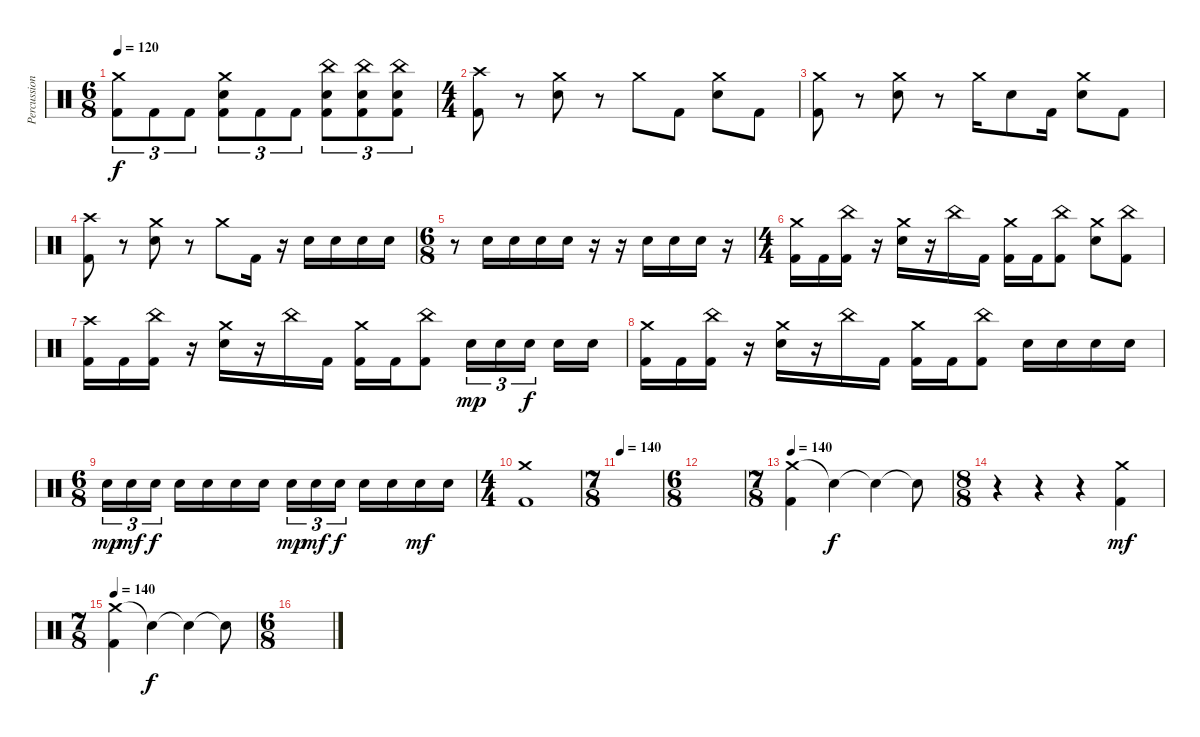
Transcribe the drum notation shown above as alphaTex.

\track ("Percussion" "Percussion") {instrument percussion}
\staff {score}
\articulation defaults
\ts (6 8)
\tempo 120
\clef neutral
\ks c
("Crash medium (hit)" "Kick (hit) 2").8{tu (3 2) dy f} "Kick (hit) 2".8{tu (3 2)} "Kick (hit) 2".8{tu (3 2)} ("Crash medium (hit)" "Snare (hit) 2" "Kick (hit) 2").8{tu (3 2)} "Kick (hit) 2".8{tu (3 2)} "Kick (hit) 2".8{tu (3 2)} ("China (hit)" "Snare (hit) 2" "Kick (hit) 2").8{tu (3 2)} ("China (hit)" "Snare (hit) 2" "Kick (hit) 2").8{tu (3 2)} ("China (hit)" "Snare (hit) 2" "Kick (hit) 2").8{tu (3 2)} |
\ts (4 4)
("Crash high (hit)" "Kick (hit) 2").8 r.8 ("Crash medium (hit)" "Snare (hit) 2").8 r.8 "Crash medium (hit)".8 "Kick (hit) 2".8 ("Crash medium (hit)" "Snare (hit) 2").8 "Kick (hit) 2".8 |
("Crash medium (hit)" "Kick (hit) 2").8 r.8 ("Crash medium (hit)" "Snare (hit) 2").8 r.8 "Crash medium (hit)".16 "Snare (hit) 2".8 "Kick (hit) 2".16 ("Crash medium (hit)" "Snare (hit) 2").8 "Kick (hit) 2".8 |
("Crash high (hit)" "Kick (hit) 2").8 r.8 ("Crash medium (hit)" "Snare (hit) 2").8 r.8 "Crash medium (hit)".8 "Kick (hit) 2".16 r.16 "Snare (hit) 2".16 "Snare (hit) 2".16 "Snare (hit) 2".16 "Snare (hit) 2".16 |
\ts (6 8)
r.8 "Snare (hit) 2".16 "Snare (hit) 2".16 "Snare (hit) 2".16 "Snare (hit) 2".16 r.16 r.16 "Snare (hit) 2".16 "Snare (hit) 2".16 "Snare (hit) 2".16 r.16 |
\ts (4 4)
("Crash medium (hit)" "Kick (hit) 2").16 "Kick (hit) 2".16 ("China (hit)" "Kick (hit) 2").16 r.16 ("Crash medium (hit)" "Snare (hit) 2").16 r.16 "China (hit)".16 "Kick (hit) 2".16 ("Crash medium (hit)" "Kick (hit) 2").16 "Kick (hit) 2".16 ("China (hit)" "Kick (hit) 2").8 ("Crash medium (hit)" "Snare (hit) 2").8 ("China (hit)" "Kick (hit) 2").8 |
("Crash high (hit)" "Kick (hit) 2").16 "Kick (hit) 2".16 ("China (hit)" "Kick (hit) 2").16 r.16 ("Crash medium (hit)" "Snare (hit) 2").16 r.16 "China (hit)".16 "Kick (hit) 2".16 ("Crash medium (hit)" "Kick (hit) 2").16 "Kick (hit) 2".16 ("China (hit)" "Kick (hit) 2").8 "Snare (hit) 2".16{tu (3 2) dy mp} "Snare (hit) 2".16{tu (3 2)} "Snare (hit) 2".16{tu (3 2) dy f beam splitsecondary} "Snare (hit) 2".16 "Snare (hit) 2".16 |
("Crash medium (hit)" "Kick (hit) 2").16 "Kick (hit) 2".16 ("China (hit)" "Kick (hit) 2").16 r.16 ("Crash medium (hit)" "Snare (hit) 2").16 r.16 "China (hit)".16 "Kick (hit) 2".16 ("Crash medium (hit)" "Kick (hit) 2").16 "Kick (hit) 2".16 ("China (hit)" "Kick (hit) 2").8 "Snare (hit) 2".16 "Snare (hit) 2".16 "Snare (hit) 2".16 "Snare (hit) 2".16 |
\ts (6 8)
"Snare (hit) 2".16{tu (3 2) dy mp} "Snare (hit) 2".16{tu (3 2) dy mf} "Snare (hit) 2".16{tu (3 2) dy f beam splitsecondary} "Snare (hit) 2".16 "Snare (hit) 2".16 "Snare (hit) 2".16 "Snare (hit) 2".16 "Snare (hit) 2".16{tu (3 2) dy mp} "Snare (hit) 2".16{tu (3 2) dy mf} "Snare (hit) 2".16{tu (3 2) dy f beam splitsecondary} "Snare (hit) 2".16 "Snare (hit) 2".16 "Snare (hit) 2".16{dy mf} "Snare (hit) 2".16 |
\ts (4 4)
("Crash medium (hit)" "Kick (hit) 2").1 |
\ts (7 8)
\tempo 140
|
\ts (6 8)
|
\ts (7 8)
\tempo 140
("Crash medium (hit)" "Kick (hit) 2").4 "Snare (hit)"{t}.4{dy f} "Snare (hit)"{t}.4 "Snare (hit)"{t}.8 |
\ts (8 8)
r.4 r.4 r.4 ("Crash medium (hit)" "Kick (hit) 2").4{dy mf} |
\ts (7 8)
\tempo 140
("Crash medium (hit)" "Kick (hit) 2").4 "Snare (hit)"{t}.4{dy f} "Snare (hit)"{t}.4 "Snare (hit)"{t}.8 |
\ts (6 8)
